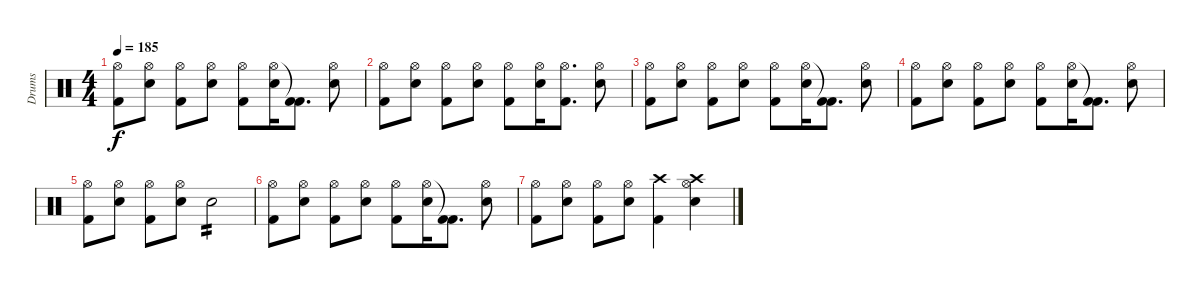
\track ("Drums" "Drums") {instrument percussion}
\staff {score}
\articulation defaults
\ts (4 4)
\tempo 185
\clef neutral
\ks c
("Hi-Hat (open)" "Kick (hit) 2").8{dy f} ("Hi-Hat (open)" "Electric Snare (hit)").8 ("Hi-Hat (open)" "Kick (hit) 2").8 ("Hi-Hat (open)" "Electric Snare (hit)").8 ("Hi-Hat (open)" "Kick (hit) 2").8 ("Hi-Hat (open)" "Electric Snare (hit)").16 ("Kick (hit) 2"{t} "Kick (hit) 2").8{d} ("Hi-Hat (open)" "Electric Snare (hit)").8 |
("Hi-Hat (open)" "Kick (hit) 2").8 ("Hi-Hat (open)" "Electric Snare (hit)").8 ("Hi-Hat (open)" "Kick (hit) 2").8 ("Hi-Hat (open)" "Electric Snare (hit)").8 ("Hi-Hat (open)" "Kick (hit) 2").8 ("Hi-Hat (open)" "Electric Snare (hit)").16 ("Hi-Hat (open)" "Kick (hit) 2").8{d} ("Hi-Hat (open)" "Electric Snare (hit)").8 |
("Hi-Hat (open)" "Kick (hit) 2").8 ("Hi-Hat (open)" "Electric Snare (hit)").8 ("Hi-Hat (open)" "Kick (hit) 2").8 ("Hi-Hat (open)" "Electric Snare (hit)").8 ("Hi-Hat (open)" "Kick (hit) 2").8 ("Hi-Hat (open)" "Electric Snare (hit)").16 ("Kick (hit) 2"{t} "Kick (hit) 2").8{d} ("Hi-Hat (open)" "Electric Snare (hit)").8 |
("Hi-Hat (open)" "Kick (hit) 2").8 ("Hi-Hat (open)" "Electric Snare (hit)").8 ("Hi-Hat (open)" "Kick (hit) 2").8 ("Hi-Hat (open)" "Electric Snare (hit)").8 ("Hi-Hat (open)" "Kick (hit) 2").8 ("Hi-Hat (open)" "Electric Snare (hit)").16 ("Kick (hit) 2"{t} "Kick (hit) 2").8{d} ("Hi-Hat (open)" "Electric Snare (hit)").8 |
("Hi-Hat (open)" "Kick (hit) 2").8 ("Hi-Hat (open)" "Electric Snare (hit)").8 ("Hi-Hat (open)" "Kick (hit) 2").8 ("Hi-Hat (open)" "Electric Snare (hit)").8 "Electric Snare (hit)".2{tp 2} |
("Hi-Hat (open)" "Kick (hit) 2").8 ("Hi-Hat (open)" "Electric Snare (hit)").8 ("Hi-Hat (open)" "Kick (hit) 2").8 ("Hi-Hat (open)" "Electric Snare (hit)").8 ("Hi-Hat (open)" "Kick (hit) 2").8 ("Hi-Hat (open)" "Electric Snare (hit)").16 ("Kick (hit) 2"{t} "Kick (hit) 2").8{d} ("Hi-Hat (open)" "Electric Snare (hit)").8 |
("Hi-Hat (open)" "Kick (hit) 2").8 ("Hi-Hat (open)" "Electric Snare (hit)").8 ("Hi-Hat (open)" "Kick (hit) 2").8 ("Hi-Hat (open)" "Electric Snare (hit)").8 ("Crash high (hit)" "Kick (hit) 2").4 ("Crash high (hit)" "Hi-Hat (open)" "Electric Snare (hit)").4
